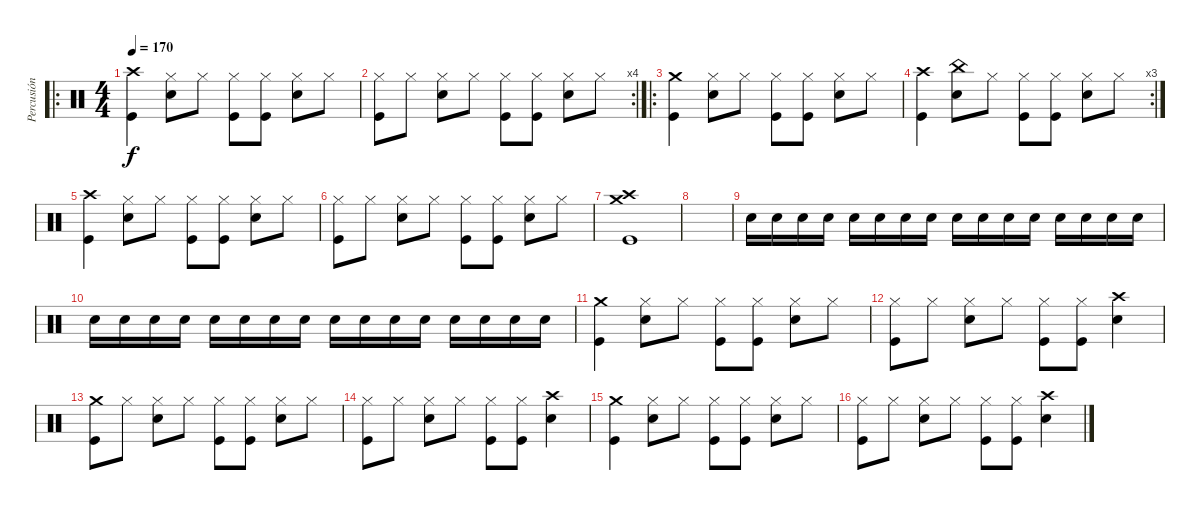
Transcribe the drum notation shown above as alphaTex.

\track ("Percusión" "Percusión") {instrument percussion}
\staff {score}
\articulation defaults
\ro
\ts (4 4)
\tempo 170
\clef neutral
\ks c
("Kick (hit)" "Crash high (hit)").4{dy f} ("Snare (hit) 2" "Hi-Hat (closed)").8 "Hi-Hat (closed)".8 ("Hi-Hat (closed)" "Kick (hit)").8 ("Kick (hit)" "Hi-Hat (closed)").8 ("Snare (hit) 2" "Hi-Hat (closed)").8 "Hi-Hat (closed)".8 |
\rc 4
("Kick (hit)" "Hi-Hat (closed)").8 "Hi-Hat (closed)".8 ("Snare (hit) 2" "Hi-Hat (closed)").8 "Hi-Hat (closed)".8 ("Hi-Hat (closed)" "Kick (hit)").8 ("Kick (hit)" "Hi-Hat (closed)").8 ("Snare (hit) 2" "Hi-Hat (closed)").8 "Hi-Hat (closed)".8 |
\ro
("Kick (hit)" "Crash medium (hit)").4 ("Snare (hit) 2" "Hi-Hat (closed)").8 "Hi-Hat (closed)".8 ("Hi-Hat (closed)" "Kick (hit)").8 ("Kick (hit)" "Hi-Hat (closed)").8 ("Snare (hit) 2" "Hi-Hat (closed)").8 "Hi-Hat (closed)".8 |
\rc 3
("Kick (hit)" "Crash high (hit)").4 ("Snare (hit) 2" "China (hit)").8 "Hi-Hat (closed)".8 ("Hi-Hat (closed)" "Kick (hit)").8 ("Kick (hit)" "Hi-Hat (closed)").8 ("Snare (hit) 2" "Hi-Hat (closed)").8 "Hi-Hat (closed)".8 |
("Kick (hit)" "Crash high (hit)").4 ("Snare (hit) 2" "Hi-Hat (closed)").8 "Hi-Hat (closed)".8 ("Hi-Hat (closed)" "Kick (hit)").8 ("Kick (hit)" "Hi-Hat (closed)").8 ("Snare (hit) 2" "Hi-Hat (closed)").8 "Hi-Hat (closed)".8 |
("Kick (hit)" "Hi-Hat (closed)").8 "Hi-Hat (closed)".8 ("Snare (hit) 2" "Hi-Hat (closed)").8 "Hi-Hat (closed)".8 ("Hi-Hat (closed)" "Kick (hit)").8 ("Kick (hit)" "Hi-Hat (closed)").8 ("Snare (hit) 2" "Hi-Hat (closed)").8 "Hi-Hat (closed)".8 |
("Kick (hit)" "Crash high (hit)" "Crash medium (hit)").1 |
|
"Snare (hit) 2".16 "Snare (hit) 2".16 "Snare (hit) 2".16 "Snare (hit) 2".16 "Snare (hit) 2".16 "Snare (hit) 2".16 "Snare (hit) 2".16 "Snare (hit) 2".16 "Snare (hit) 2".16 "Snare (hit) 2".16 "Snare (hit) 2".16 "Snare (hit) 2".16 "Snare (hit) 2".16 "Snare (hit) 2".16 "Snare (hit) 2".16 "Snare (hit) 2".16 |
"Snare (hit) 2".16 "Snare (hit) 2".16 "Snare (hit) 2".16 "Snare (hit) 2".16 "Snare (hit) 2".16 "Snare (hit) 2".16 "Snare (hit) 2".16 "Snare (hit) 2".16 "Snare (hit) 2".16 "Snare (hit) 2".16 "Snare (hit) 2".16 "Snare (hit) 2".16 "Snare (hit) 2".16 "Snare (hit) 2".16 "Snare (hit) 2".16 "Snare (hit) 2".16 |
("Kick (hit)" "Crash medium (hit)").4 ("Snare (hit) 2" "Hi-Hat (closed)").8 "Hi-Hat (closed)".8 ("Hi-Hat (closed)" "Kick (hit)").8 ("Kick (hit)" "Hi-Hat (closed)").8 ("Snare (hit) 2" "Hi-Hat (closed)").8 "Hi-Hat (closed)".8 |
("Kick (hit)" "Hi-Hat (closed)").8 "Hi-Hat (closed)".8 ("Snare (hit) 2" "Hi-Hat (closed)").8 "Hi-Hat (closed)".8 ("Hi-Hat (closed)" "Kick (hit)").8 ("Kick (hit)" "Hi-Hat (closed)").8 ("Snare (hit) 2" "Crash high (hit)").4 |
("Kick (hit)" "Crash medium (hit)").8 "Hi-Hat (closed)".8 ("Snare (hit) 2" "Hi-Hat (closed)").8 "Hi-Hat (closed)".8 ("Hi-Hat (closed)" "Kick (hit)").8 ("Kick (hit)" "Hi-Hat (closed)").8 ("Snare (hit) 2" "Hi-Hat (closed)").8 "Hi-Hat (closed)".8 |
("Kick (hit)" "Hi-Hat (closed)").8 "Hi-Hat (closed)".8 ("Snare (hit) 2" "Hi-Hat (closed)").8 "Hi-Hat (closed)".8 ("Hi-Hat (closed)" "Kick (hit)").8 ("Kick (hit)" "Hi-Hat (closed)").8 ("Snare (hit) 2" "Crash high (hit)").4 |
("Kick (hit)" "Crash medium (hit)").4 ("Snare (hit) 2" "Hi-Hat (closed)").8 "Hi-Hat (closed)".8 ("Hi-Hat (closed)" "Kick (hit)").8 ("Kick (hit)" "Hi-Hat (closed)").8 ("Snare (hit) 2" "Hi-Hat (closed)").8 "Hi-Hat (closed)".8 |
("Kick (hit)" "Hi-Hat (closed)").8 "Hi-Hat (closed)".8 ("Snare (hit) 2" "Hi-Hat (closed)").8 "Hi-Hat (closed)".8 ("Hi-Hat (closed)" "Kick (hit)").8 ("Kick (hit)" "Hi-Hat (closed)").8 ("Snare (hit) 2" "Crash high (hit)").4
